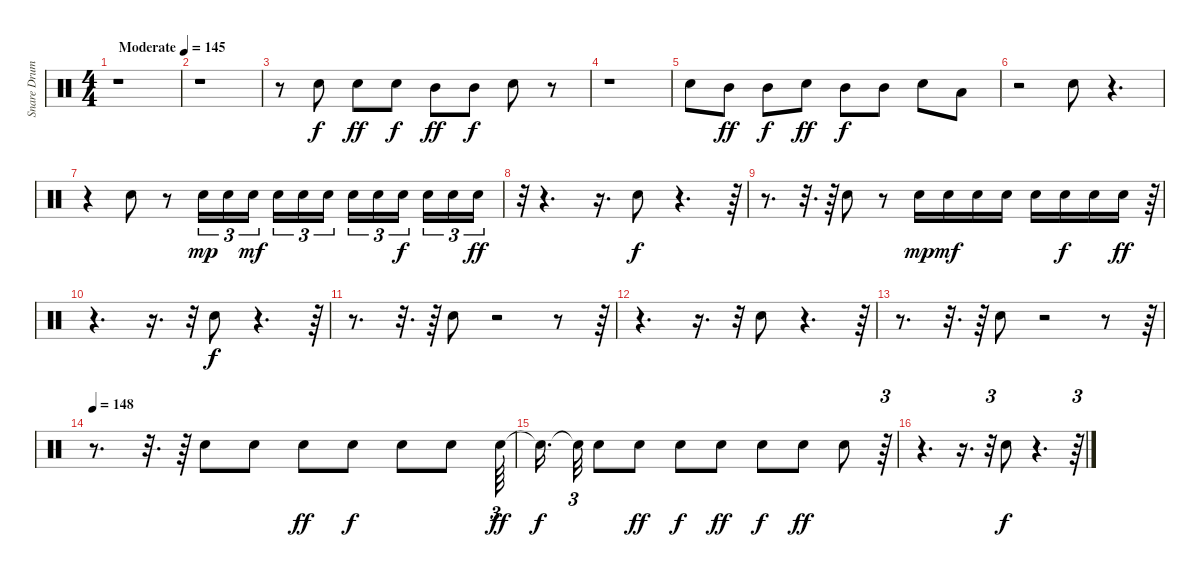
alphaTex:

\track ("Snare Drums" "Snare Drum") {instrument percussion}
\staff {score}
\articulation defaults
\ts (4 4)
\tempo (145 "Moderate")
\clef neutral
\ks c
r.1{dy f} |
r.1 |
r.8 "Electric Snare (hit)".8{volume 13} "Electric Snare (hit)".8{dy ff} "Electric Snare (hit)".8{dy f} "Mid Tom (hit)".8{dy ff} "Mid Tom (hit)".8{dy f} "Electric Snare (hit)".8 r.8 |
r.1 |
"Electric Snare (hit)".8 "Mid Tom (hit)".8{dy ff} "Mid Tom (hit)".8{dy f} "Electric Snare (hit)".8{dy ff} "Mid Tom (hit)".8{dy f} "Mid Tom (hit)".8 "Electric Snare (hit)".8 "Low Tom (hit)".8 |
r.2 "Electric Snare (hit)".8 r.4{d} |
r.4 "Electric Snare (hit)".8 r.8 "Electric Snare (hit)".16{tu (3 2) dy mp} "Electric Snare (hit)".16{tu (3 2)} "Electric Snare (hit)".16{tu (3 2) dy mf} "Electric Snare (hit)".16{tu (3 2)} "Electric Snare (hit)".16{tu (3 2)} "Electric Snare (hit)".16{tu (3 2)} "Electric Snare (hit)".16{tu (3 2)} "Electric Snare (hit)".16{tu (3 2)} "Electric Snare (hit)".16{tu (3 2) dy f} "Electric Snare (hit)".16{tu (3 2)} "Electric Snare (hit)".16{tu (3 2)} "Electric Snare (hit)".16{tu (3 2) dy ff} |
r.32{tu (3 2)} r.4{d} r.16{d} "Electric Snare (hit)".8{dy f} r.4{d} r.64{tu (3 2)} |
r.8{d} r.32{d} r.64 "Electric Snare (hit)".8 r.8 "Electric Snare (hit)".16{dy mp} "Electric Snare (hit)".16{dy mf} "Electric Snare (hit)".16 "Electric Snare (hit)".16 "Electric Snare (hit)".16 "Electric Snare (hit)".16{dy f} "Electric Snare (hit)".16 "Electric Snare (hit)".16{dy ff} r.64{tu (3 2)} |
r.4{d} r.16{d} r.32{tu (3 2)} "Electric Snare (hit)".8{dy f} r.4{d} r.64{tu (3 2)} |
r.8{d} r.32{d} r.64 "Electric Snare (hit)".8 r.2 r.8 r.64{tu (3 2)} |
r.4{d} r.16{d} r.32{tu (3 2)} "Electric Snare (hit)".8 r.4{d} r.64{tu (3 2)} |
r.8{d} r.32{d} r.64 "Electric Snare (hit)".8 r.2 r.8 r.64{tu (3 2)} |
\tempo 148
r.8{d} r.32{d} r.64 "Electric Snare (hit)".8 "Electric Snare (hit)".8 "Electric Snare (hit)".8{dy ff} "Electric Snare (hit)".8{dy f} "Electric Snare (hit)".8 "Electric Snare (hit)".8 "Electric Snare (hit)".64{tu (3 2) dy ff} |
"Snare (hit)"{t}.16{d dy f} "Snare (hit)"{t}.32{tu (3 2)} "Electric Snare (hit)".8 "Electric Snare (hit)".8{dy ff} "Electric Snare (hit)".8{dy f} "Electric Snare (hit)".8{dy ff} "Electric Snare (hit)".8{dy f} "Electric Snare (hit)".8{dy ff} "Electric Snare (hit)".8 r.64{tu (3 2)} |
r.4{d} r.16{d} r.32{tu (3 2)} "Electric Snare (hit)".8{dy f} r.4{d} r.64{tu (3 2)}
